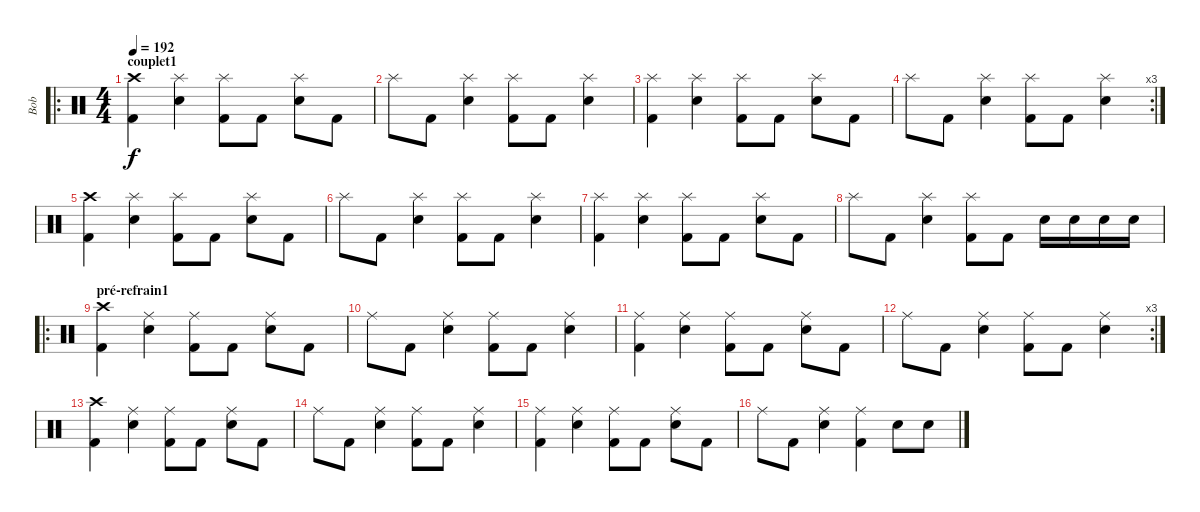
\track ("Bob" "Bob") {instrument percussion}
\staff {score}
\articulation defaults
\ro
\ts (4 4)
\section ("" "couplet1")
\tempo 192
\clef neutral
\ks c
("Crash high (hit)" "Kick (hit) 2").4{dy f} ("Splash (hit)" "Electric Snare (hit)").4 ("Splash (hit)" "Kick (hit) 2").8 "Kick (hit) 2".8 ("Splash (hit)" "Electric Snare (hit)").8 "Kick (hit) 2".8 |
"Splash (hit)".8 "Kick (hit) 2".8 ("Splash (hit)" "Electric Snare (hit)").4 ("Splash (hit)" "Kick (hit) 2").8 "Kick (hit) 2".8 ("Splash (hit)" "Electric Snare (hit)").4 |
("Splash (hit)" "Kick (hit) 2").4 ("Splash (hit)" "Electric Snare (hit)").4 ("Splash (hit)" "Kick (hit) 2").8 "Kick (hit) 2".8 ("Splash (hit)" "Electric Snare (hit)").8 "Kick (hit) 2".8 |
\rc 3 "Splash (hit)".8 "Kick (hit) 2".8
("Splash (hit)" "Electric Snare (hit)").4 ("Splash (hit)" "Kick (hit) 2").8 "Kick (hit) 2".8 ("Splash (hit)" "Electric Snare (hit)").4 |
("Crash high (hit)" "Kick (hit) 2").4 ("Splash (hit)" "Electric Snare (hit)").4 ("Splash (hit)" "Kick (hit) 2").8 "Kick (hit) 2".8 ("Splash (hit)" "Electric Snare (hit)").8 "Kick (hit) 2".8 |
"Splash (hit)".8 "Kick (hit) 2".8 ("Splash (hit)" "Electric Snare (hit)").4 ("Splash (hit)" "Kick (hit) 2").8 "Kick (hit) 2".8 ("Splash (hit)" "Electric Snare (hit)").4 |
("Splash (hit)" "Kick (hit) 2").4 ("Splash (hit)" "Electric Snare (hit)").4 ("Splash (hit)" "Kick (hit) 2").8 "Kick (hit) 2".8 ("Splash (hit)" "Electric Snare (hit)").8 "Kick (hit) 2".8 |
"Splash (hit)".8 "Kick (hit) 2".8 ("Splash (hit)" "Electric Snare (hit)").4 ("Splash (hit)" "Kick (hit) 2").8 "Kick (hit) 2".8 "Electric Snare (hit)".16 "Electric Snare (hit)".16 "Electric Snare (hit)".16 "Electric Snare (hit)".16 |
\ro
\section ("" "pré-refrain1")
("Crash high (hit)" "Kick (hit) 2").4 ("Ride (middle)" "Electric Snare (hit)").4 ("Ride (middle)" "Kick (hit) 2").8 "Kick (hit) 2".8 ("Ride (middle)" "Electric Snare (hit)").8 "Kick (hit) 2".8 |
"Ride (middle)".8 "Kick (hit) 2".8 ("Ride (middle)" "Electric Snare (hit)").4 ("Ride (middle)" "Kick (hit) 2").8 "Kick (hit) 2".8 ("Ride (middle)" "Electric Snare (hit)").4 |
("Ride (middle)" "Kick (hit) 2").4 ("Ride (middle)" "Electric Snare (hit)").4 ("Ride (middle)" "Kick (hit) 2").8 "Kick (hit) 2".8 ("Ride (middle)" "Electric Snare (hit)").8 "Kick (hit) 2".8 |
\rc 3 "Ride (middle)".8 "Kick (hit) 2".8
("Ride (middle)" "Electric Snare (hit)").4 ("Ride (middle)" "Kick (hit) 2").8 "Kick (hit) 2".8 ("Ride (middle)" "Electric Snare (hit)").4 |
("Crash high (hit)" "Kick (hit) 2").4 ("Ride (middle)" "Electric Snare (hit)").4 ("Ride (middle)" "Kick (hit) 2").8 "Kick (hit) 2".8 ("Ride (middle)" "Electric Snare (hit)").8 "Kick (hit) 2".8 |
"Ride (middle)".8 "Kick (hit) 2".8 ("Ride (middle)" "Electric Snare (hit)").4 ("Ride (middle)" "Kick (hit) 2").8 "Kick (hit) 2".8 ("Ride (middle)" "Electric Snare (hit)").4 |
("Ride (middle)" "Kick (hit) 2").4 ("Ride (middle)" "Electric Snare (hit)").4 ("Ride (middle)" "Kick (hit) 2").8 "Kick (hit) 2".8 ("Ride (middle)" "Electric Snare (hit)").8 "Kick (hit) 2".8 |
"Ride (middle)".8 "Kick (hit) 2".8 ("Ride (middle)" "Electric Snare (hit)").4 ("Ride (middle)" "Kick (hit) 2").4 "Electric Snare (hit)".8 "Electric Snare (hit)".8
